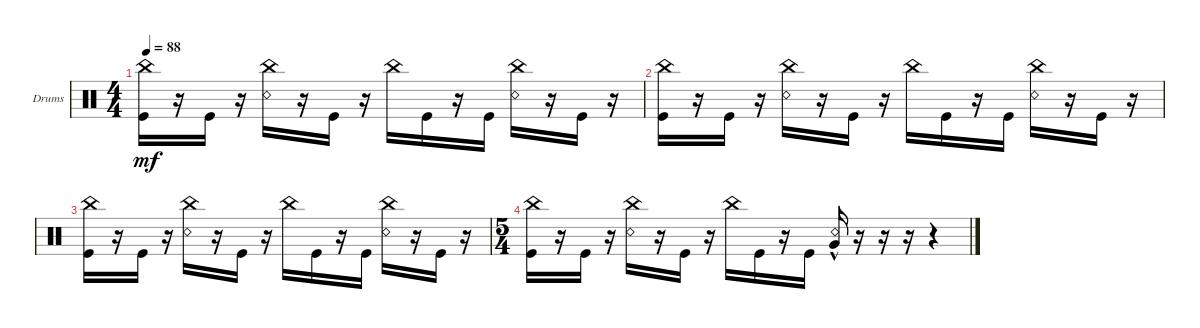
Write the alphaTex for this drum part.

\defaultSystemsLayout 4
\bracketExtendMode groupsimilarinstruments
\firstSystemTrackNameOrientation horizontal
\otherSystemsTrackNameOrientation horizontal
\track ("Drumkit" "Drums") {instrument percussion}
\staff {score}
\articulation defaults
\ts (4 4)
\tempo 88
\clef neutral
\ks c
("Kick (hit)" "China (hit)").16{dy mf} r.16 "Kick (hit)".16 r.16 ("Snare (rim shot)" "China (hit)").16 r.16 "Kick (hit)".16 r.16 "China (hit)".16 "Kick (hit)".16 r.16 "Kick (hit)".16 ("Snare (rim shot)" "China (hit)").16 r.16 "Kick (hit)".16 r.16 |
("Kick (hit)" "China (hit)").16 r.16 "Kick (hit)".16 r.16 ("Snare (rim shot)" "China (hit)").16 r.16 "Kick (hit)".16 r.16 "China (hit)".16 "Kick (hit)".16 r.16 "Kick (hit)".16 ("Snare (rim shot)" "China (hit)").16 r.16 "Kick (hit)".16 r.16 |
("Kick (hit)" "China (hit)").16 r.16 "Kick (hit)".16 r.16 ("Snare (rim shot)" "China (hit)").16 r.16 "Kick (hit)".16 r.16 "China (hit)".16 "Kick (hit)".16 r.16 "Kick (hit)".16 ("Snare (rim shot)" "China (hit)").16 r.16 "Kick (hit)".16 r.16 |
\ts (5 4)
("Kick (hit)" "China (hit)").16 r.16 "Kick (hit)".16 r.16 ("Snare (rim shot)" "China (hit)").16 r.16 "Kick (hit)".16 r.16 "China (hit)".16 "Kick (hit)".16 r.16 "Kick (hit)".16 ("Snare (rim shot)" "Very Low Tom (hit)"{hac}).16 r.16 r.16 r.16 r.4
